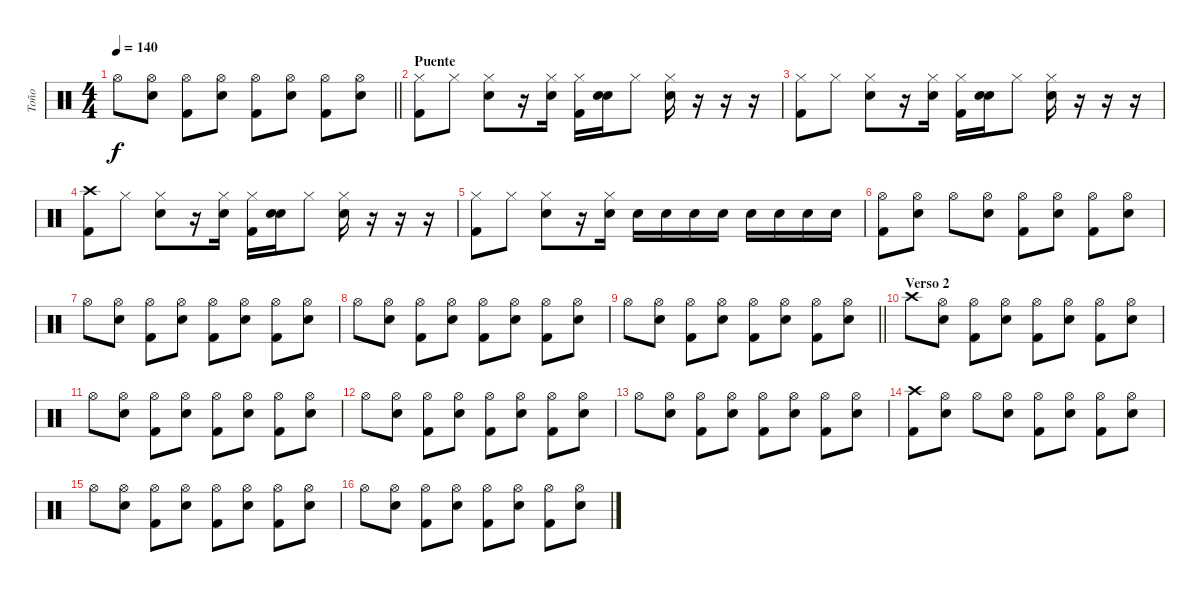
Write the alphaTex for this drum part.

\track ("Toño" "Toño") {instrument percussion}
\staff {score}
\articulation defaults
\ts (4 4)
\tempo 140
\clef neutral
\barLineRight lightlight
\ks c "Hi-Hat (open)".8{dy f}
("Hi-Hat (open)" "Electric Snare (hit)").8 ("Hi-Hat (open)" "Kick (hit) 2").8 ("Hi-Hat (open)" "Electric Snare (hit)").8 ("Hi-Hat (open)" "Kick (hit) 2").8 ("Hi-Hat (open)" "Electric Snare (hit)").8 ("Hi-Hat (open)" "Kick (hit) 2").8 ("Hi-Hat (open)" "Electric Snare (hit)").8 |
\section ("" "Puente")
("Hi-Hat (closed)" "Kick (hit) 2").8 "Hi-Hat (closed)".8 ("Hi-Hat (closed)" "Electric Snare (hit)").8 r.16 ("Hi-Hat (closed)" "Electric Snare (hit)").16 ("Hi-Hat (closed)" "Kick (hit) 2").16 ("Electric Snare (hit)" "Electric Snare (hit)").16 "Hi-Hat (closed)".8 ("Hi-Hat (closed)" "Electric Snare (hit)").16 r.16 r.16 r.16 |
("Hi-Hat (closed)" "Kick (hit) 2").8 "Hi-Hat (closed)".8 ("Hi-Hat (closed)" "Electric Snare (hit)").8 r.16 ("Hi-Hat (closed)" "Electric Snare (hit)").16 ("Hi-Hat (closed)" "Kick (hit) 2").16 ("Electric Snare (hit)" "Electric Snare (hit)").16 "Hi-Hat (closed)".8 ("Hi-Hat (closed)" "Electric Snare (hit)").16 r.16 r.16 r.16 |
("Crash high (hit)" "Kick (hit) 2").8 "Hi-Hat (closed)".8 ("Hi-Hat (closed)" "Electric Snare (hit)").8 r.16 ("Hi-Hat (closed)" "Electric Snare (hit)").16 ("Hi-Hat (closed)" "Kick (hit) 2").16 ("Electric Snare (hit)" "Electric Snare (hit)").16 "Hi-Hat (closed)".8 ("Hi-Hat (closed)" "Electric Snare (hit)").16 r.16 r.16 r.16 |
("Hi-Hat (closed)" "Kick (hit) 2").8 "Hi-Hat (closed)".8 ("Hi-Hat (closed)" "Electric Snare (hit)").8 r.16 ("Hi-Hat (closed)" "Electric Snare (hit)").16 "Electric Snare (hit)".16 "Electric Snare (hit)".16 "Electric Snare (hit)".16 "Electric Snare (hit)".16 "Electric Snare (hit)".16 "Electric Snare (hit)".16 "Electric Snare (hit)".16 "Electric Snare (hit)".16 |
("Hi-Hat (open)" "Kick (hit) 2").8 ("Hi-Hat (open)" "Electric Snare (hit)").8 "Hi-Hat (open)".8 ("Hi-Hat (open)" "Electric Snare (hit)").8 ("Hi-Hat (open)" "Kick (hit) 2").8 ("Hi-Hat (open)" "Electric Snare (hit)").8 ("Hi-Hat (open)" "Kick (hit) 2").8 ("Hi-Hat (open)" "Electric Snare (hit)").8 |
"Hi-Hat (open)".8 ("Hi-Hat (open)" "Electric Snare (hit)").8 ("Hi-Hat (open)" "Kick (hit) 2").8 ("Hi-Hat (open)" "Electric Snare (hit)").8 ("Hi-Hat (open)" "Kick (hit) 2").8 ("Hi-Hat (open)" "Electric Snare (hit)").8 ("Hi-Hat (open)" "Kick (hit) 2").8 ("Hi-Hat (open)" "Electric Snare (hit)").8 |
"Hi-Hat (open)".8 ("Hi-Hat (open)" "Electric Snare (hit)").8 ("Hi-Hat (open)" "Kick (hit) 2").8 ("Hi-Hat (open)" "Electric Snare (hit)").8 ("Hi-Hat (open)" "Kick (hit) 2").8 ("Hi-Hat (open)" "Electric Snare (hit)").8 ("Hi-Hat (open)" "Kick (hit) 2").8 ("Hi-Hat (open)" "Electric Snare (hit)").8 |
\barLineRight lightlight "Hi-Hat (open)".8
("Hi-Hat (open)" "Electric Snare (hit)").8 ("Hi-Hat (open)" "Kick (hit) 2").8 ("Hi-Hat (open)" "Electric Snare (hit)").8 ("Hi-Hat (open)" "Kick (hit) 2").8 ("Hi-Hat (open)" "Electric Snare (hit)").8 ("Hi-Hat (open)" "Kick (hit) 2").8 ("Hi-Hat (open)" "Electric Snare (hit)").8 |
\section ("" "Verso 2")
"Crash high (hit)".8 ("Hi-Hat (open)" "Electric Snare (hit)").8 ("Hi-Hat (open)" "Kick (hit) 2").8 ("Hi-Hat (open)" "Electric Snare (hit)").8 ("Hi-Hat (open)" "Kick (hit) 2").8 ("Hi-Hat (open)" "Electric Snare (hit)").8 ("Hi-Hat (open)" "Kick (hit) 2").8 ("Hi-Hat (open)" "Electric Snare (hit)").8 |
"Hi-Hat (open)".8 ("Hi-Hat (open)" "Electric Snare (hit)").8 ("Hi-Hat (open)" "Kick (hit) 2").8 ("Hi-Hat (open)" "Electric Snare (hit)").8 ("Hi-Hat (open)" "Kick (hit) 2").8 ("Hi-Hat (open)" "Electric Snare (hit)").8 ("Hi-Hat (open)" "Kick (hit) 2").8 ("Hi-Hat (open)" "Electric Snare (hit)").8 |
"Hi-Hat (open)".8 ("Hi-Hat (open)" "Electric Snare (hit)").8 ("Hi-Hat (open)" "Kick (hit) 2").8 ("Hi-Hat (open)" "Electric Snare (hit)").8 ("Hi-Hat (open)" "Kick (hit) 2").8 ("Hi-Hat (open)" "Electric Snare (hit)").8 ("Hi-Hat (open)" "Kick (hit) 2").8 ("Hi-Hat (open)" "Electric Snare (hit)").8 |
"Hi-Hat (open)".8 ("Hi-Hat (open)" "Electric Snare (hit)").8 ("Hi-Hat (open)" "Kick (hit) 2").8 ("Hi-Hat (open)" "Electric Snare (hit)").8 ("Hi-Hat (open)" "Kick (hit) 2").8 ("Hi-Hat (open)" "Electric Snare (hit)").8 ("Hi-Hat (open)" "Kick (hit) 2").8 ("Hi-Hat (open)" "Electric Snare (hit)").8 |
("Crash high (hit)" "Kick (hit) 2").8 ("Hi-Hat (open)" "Electric Snare (hit)").8 "Hi-Hat (open)".8 ("Hi-Hat (open)" "Electric Snare (hit)").8 ("Hi-Hat (open)" "Kick (hit) 2").8 ("Hi-Hat (open)" "Electric Snare (hit)").8 ("Hi-Hat (open)" "Kick (hit) 2").8 ("Hi-Hat (open)" "Electric Snare (hit)").8 |
"Hi-Hat (open)".8 ("Hi-Hat (open)" "Electric Snare (hit)").8 ("Hi-Hat (open)" "Kick (hit) 2").8 ("Hi-Hat (open)" "Electric Snare (hit)").8 ("Hi-Hat (open)" "Kick (hit) 2").8 ("Hi-Hat (open)" "Electric Snare (hit)").8 ("Hi-Hat (open)" "Kick (hit) 2").8 ("Hi-Hat (open)" "Electric Snare (hit)").8 |
"Hi-Hat (open)".8 ("Hi-Hat (open)" "Electric Snare (hit)").8 ("Hi-Hat (open)" "Kick (hit) 2").8 ("Hi-Hat (open)" "Electric Snare (hit)").8 ("Hi-Hat (open)" "Kick (hit) 2").8 ("Hi-Hat (open)" "Electric Snare (hit)").8 ("Hi-Hat (open)" "Kick (hit) 2").8 ("Hi-Hat (open)" "Electric Snare (hit)").8
